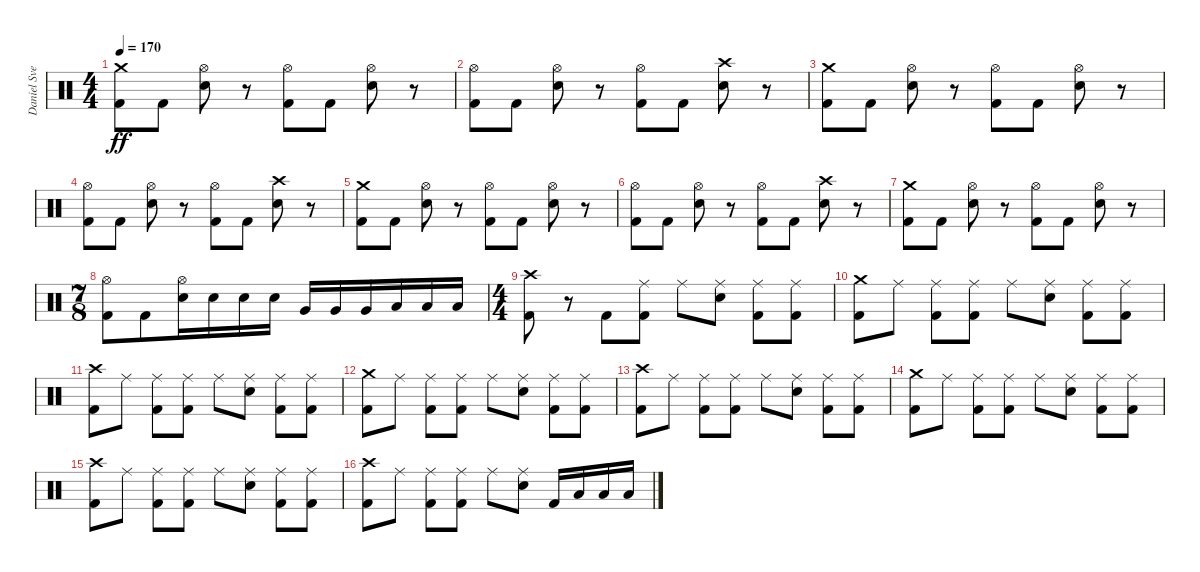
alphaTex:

\track ("Daniel Svensson" "Daniel Sve") {instrument percussion}
\staff {score}
\articulation defaults
\ts (4 4)
\tempo 170
\clef neutral
\ks c
("Crash medium (hit)" "Kick (hit) 2").8{dy ff} "Kick (hit) 2".8 ("Hi-Hat (open)" "Electric Snare (hit)").8 r.8 ("Hi-Hat (open)" "Kick (hit) 2").8 "Kick (hit) 2".8 ("Hi-Hat (open)" "Electric Snare (hit)").8 r.8 |
("Hi-Hat (open)" "Kick (hit) 2").8 "Kick (hit) 2".8 ("Hi-Hat (open)" "Electric Snare (hit)").8 r.8 ("Hi-Hat (open)" "Kick (hit) 2").8 "Kick (hit) 2".8 ("Crash high (hit)" "Electric Snare (hit)").8 r.8 |
("Crash medium (hit)" "Kick (hit) 2").8 "Kick (hit) 2".8 ("Hi-Hat (open)" "Electric Snare (hit)").8 r.8 ("Hi-Hat (open)" "Kick (hit) 2").8 "Kick (hit) 2".8 ("Hi-Hat (open)" "Electric Snare (hit)").8 r.8 |
("Hi-Hat (open)" "Kick (hit) 2").8 "Kick (hit) 2".8 ("Hi-Hat (open)" "Electric Snare (hit)").8 r.8 ("Hi-Hat (open)" "Kick (hit) 2").8 "Kick (hit) 2".8 ("Crash high (hit)" "Electric Snare (hit)").8 r.8 |
("Crash medium (hit)" "Kick (hit) 2").8 "Kick (hit) 2".8 ("Hi-Hat (open)" "Electric Snare (hit)").8 r.8 ("Hi-Hat (open)" "Kick (hit) 2").8 "Kick (hit) 2".8 ("Hi-Hat (open)" "Electric Snare (hit)").8 r.8 |
("Hi-Hat (open)" "Kick (hit) 2").8 "Kick (hit) 2".8 ("Hi-Hat (open)" "Electric Snare (hit)").8 r.8 ("Hi-Hat (open)" "Kick (hit) 2").8 "Kick (hit) 2".8 ("Crash high (hit)" "Electric Snare (hit)").8 r.8 |
("Crash medium (hit)" "Kick (hit) 2").8 "Kick (hit) 2".8 ("Hi-Hat (open)" "Electric Snare (hit)").8 r.8 ("Hi-Hat (open)" "Kick (hit) 2").8 "Kick (hit) 2".8 ("Hi-Hat (open)" "Electric Snare (hit)").8 r.8 |
\ts (7 8)
("Hi-Hat (open)" "Kick (hit) 2").8 "Kick (hit) 2".8 ("Hi-Hat (open)" "Electric Snare (hit)").16 "Electric Snare (hit)".16 "Electric Snare (hit)".16 "Electric Snare (hit)".16 "Very Low Tom (hit)".16 "Very Low Tom (hit)".16 "Very Low Tom (hit)".16 "Low Floor Tom (hit)".16 "Low Floor Tom (hit)".16 "Low Floor Tom (hit)".16 |
\ts (4 4)
("Crash high (hit)" "Kick (hit) 2").8 r.8 "Kick (hit) 2".8 ("Ride (middle)" "Kick (hit) 2").8 "Ride (middle)".8 ("Ride (middle)" "Electric Snare (hit)").8 ("Ride (middle)" "Kick (hit) 2").8 ("Ride (middle)" "Kick (hit) 2").8 |
("Crash medium (hit)" "Kick (hit) 2").8 "Ride (middle)".8 ("Ride (middle)" "Kick (hit) 2").8 ("Ride (middle)" "Kick (hit) 2").8 "Ride (middle)".8 ("Ride (middle)" "Electric Snare (hit)").8 ("Ride (middle)" "Kick (hit) 2").8 ("Ride (middle)" "Kick (hit) 2").8 |
("Crash high (hit)" "Kick (hit) 2").8 "Ride (middle)".8 ("Ride (middle)" "Kick (hit) 2").8 ("Ride (middle)" "Kick (hit) 2").8 "Ride (middle)".8 ("Ride (middle)" "Electric Snare (hit)").8 ("Ride (middle)" "Kick (hit) 2").8 ("Ride (middle)" "Kick (hit) 2").8 |
("Crash medium (hit)" "Kick (hit) 2").8 "Ride (middle)".8 ("Ride (middle)" "Kick (hit) 2").8 ("Ride (middle)" "Kick (hit) 2").8 "Ride (middle)".8 ("Ride (middle)" "Electric Snare (hit)").8 ("Ride (middle)" "Kick (hit) 2").8 ("Ride (middle)" "Kick (hit) 2").8 |
("Crash high (hit)" "Kick (hit) 2").8 "Ride (middle)".8 ("Ride (middle)" "Kick (hit) 2").8 ("Ride (middle)" "Kick (hit) 2").8 "Ride (middle)".8 ("Ride (middle)" "Electric Snare (hit)").8 ("Ride (middle)" "Kick (hit) 2").8 ("Ride (middle)" "Kick (hit) 2").8 |
("Crash medium (hit)" "Kick (hit) 2").8 "Ride (middle)".8 ("Ride (middle)" "Kick (hit) 2").8 ("Ride (middle)" "Kick (hit) 2").8 "Ride (middle)".8 ("Ride (middle)" "Electric Snare (hit)").8 ("Ride (middle)" "Kick (hit) 2").8 ("Ride (middle)" "Kick (hit) 2").8 |
("Crash high (hit)" "Kick (hit) 2").8 "Ride (middle)".8 ("Ride (middle)" "Kick (hit) 2").8 ("Ride (middle)" "Kick (hit) 2").8 "Ride (middle)".8 ("Ride (middle)" "Electric Snare (hit)").8 ("Ride (middle)" "Kick (hit) 2").8 ("Ride (middle)" "Kick (hit) 2").8 |
("Crash high (hit)" "Kick (hit) 2").8 "Ride (middle)".8 ("Ride (middle)" "Kick (hit) 2").8 ("Ride (middle)" "Kick (hit) 2").8 "Ride (middle)".8 ("Ride (middle)" "Electric Snare (hit)").8 "Kick (hit) 2".16 "Low Floor Tom (hit)".16 "Low Floor Tom (hit)".16 "Low Floor Tom (hit)".16
